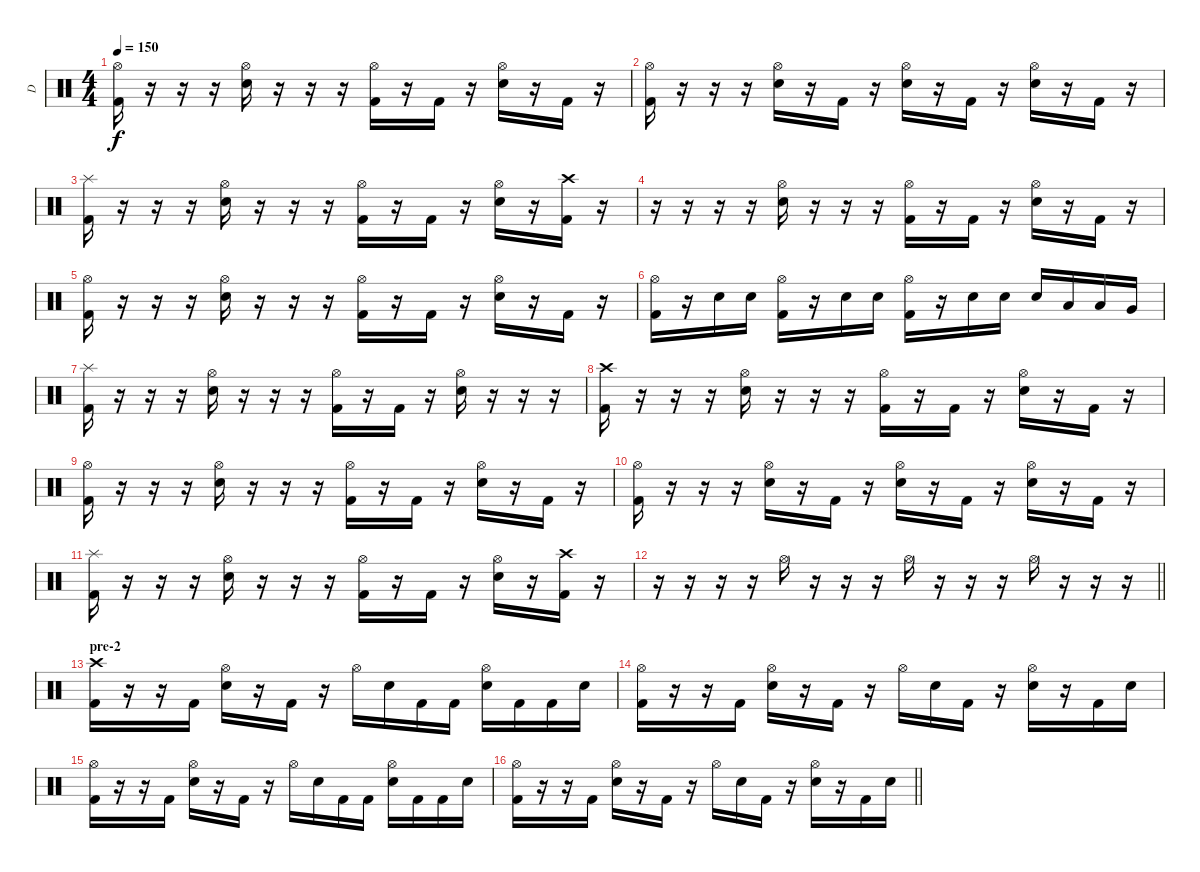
\track ("D" "D") {instrument percussion}
\staff {score}
\articulation defaults
\ts (4 4)
\tempo 150
\clef neutral
\ks c
("Hi-Hat (open)" "Kick (hit) 2").16{dy f} r.16 r.16 r.16 ("Hi-Hat (open)" "Electric Snare (hit)").16 r.16 r.16 r.16 ("Hi-Hat (open)" "Kick (hit) 2").16 r.16 "Kick (hit) 2".16 r.16 ("Hi-Hat (open)" "Electric Snare (hit)").16 r.16 "Kick (hit) 2".16 r.16 |
("Hi-Hat (open)" "Kick (hit) 2").16 r.16 r.16 r.16 ("Hi-Hat (open)" "Electric Snare (hit)").16 r.16 "Kick (hit) 2".16 r.16 ("Hi-Hat (open)" "Electric Snare (hit)").16 r.16 "Kick (hit) 2".16 r.16 ("Hi-Hat (open)" "Electric Snare (hit)").16 r.16 "Kick (hit) 2".16 r.16 |
("Splash (hit)" "Kick (hit) 2").16 r.16 r.16 r.16 ("Hi-Hat (open)" "Electric Snare (hit)").16 r.16 r.16 r.16 ("Hi-Hat (open)" "Kick (hit) 2").16 r.16 "Kick (hit) 2".16 r.16 ("Hi-Hat (open)" "Electric Snare (hit)").16 r.16 ("Crash high (hit)" "Kick (hit) 2").16 r.16 |
r.16 r.16 r.16 r.16 ("Hi-Hat (open)" "Electric Snare (hit)").16 r.16 r.16 r.16 ("Hi-Hat (open)" "Kick (hit) 2").16 r.16 "Kick (hit) 2".16 r.16 ("Hi-Hat (open)" "Electric Snare (hit)").16 r.16 "Kick (hit) 2".16 r.16 |
("Hi-Hat (open)" "Kick (hit) 2").16 r.16 r.16 r.16 ("Hi-Hat (open)" "Electric Snare (hit)").16 r.16 r.16 r.16 ("Hi-Hat (open)" "Kick (hit) 2").16 r.16 "Kick (hit) 2".16 r.16 ("Hi-Hat (open)" "Electric Snare (hit)").16 r.16 "Kick (hit) 2".16 r.16 |
("Hi-Hat (open)" "Kick (hit) 2").16 r.16 "Electric Snare (hit)".16 "Electric Snare (hit)".16 ("Hi-Hat (open)" "Kick (hit) 2").16 r.16 "Electric Snare (hit)".16 "Electric Snare (hit)".16 ("Hi-Hat (open)" "Kick (hit) 2").16 r.16 "Electric Snare (hit)".16 "Electric Snare (hit)".16 "Electric Snare (hit)".16 "Low Tom (hit)".16 "Low Tom (hit)".16 "Very Low Tom (hit)".16 |
("Splash (hit)" "Kick (hit) 2").16 r.16 r.16 r.16 ("Hi-Hat (open)" "Electric Snare (hit)").16 r.16 r.16 r.16 ("Hi-Hat (open)" "Kick (hit) 2").16 r.16 "Kick (hit) 2".16 r.16 ("Hi-Hat (open)" "Electric Snare (hit)").16 r.16 r.16 r.16 |
("Crash high (hit)" "Kick (hit) 2").16 r.16 r.16 r.16 ("Hi-Hat (open)" "Electric Snare (hit)").16 r.16 r.16 r.16 ("Hi-Hat (open)" "Kick (hit) 2").16 r.16 "Kick (hit) 2".16 r.16 ("Hi-Hat (open)" "Electric Snare (hit)").16 r.16 "Kick (hit) 2".16 r.16 |
("Hi-Hat (open)" "Kick (hit) 2").16 r.16 r.16 r.16 ("Hi-Hat (open)" "Electric Snare (hit)").16 r.16 r.16 r.16 ("Hi-Hat (open)" "Kick (hit) 2").16 r.16 "Kick (hit) 2".16 r.16 ("Hi-Hat (open)" "Electric Snare (hit)").16 r.16 "Kick (hit) 2".16 r.16 |
("Hi-Hat (open)" "Kick (hit) 2").16 r.16 r.16 r.16 ("Hi-Hat (open)" "Electric Snare (hit)").16 r.16 "Kick (hit) 2".16 r.16 ("Hi-Hat (open)" "Electric Snare (hit)").16 r.16 "Kick (hit) 2".16 r.16 ("Hi-Hat (open)" "Electric Snare (hit)").16 r.16 "Kick (hit) 2".16 r.16 |
("Splash (hit)" "Kick (hit) 2").16 r.16 r.16 r.16 ("Hi-Hat (open)" "Electric Snare (hit)").16 r.16 r.16 r.16 ("Hi-Hat (open)" "Kick (hit) 2").16 r.16 "Kick (hit) 2".16 r.16 ("Hi-Hat (open)" "Electric Snare (hit)").16 r.16 ("Crash high (hit)" "Kick (hit) 2").16 r.16 |
\barLineRight lightlight
r.16 r.16 r.16 r.16 "Hi-Hat (open)".16 r.16 r.16 r.16 "Hi-Hat (open)".16 r.16 r.16 r.16 "Hi-Hat (open)".16 r.16 r.16 r.16 |
\section ("" "pre-2")
("Crash high (hit)" "Kick (hit) 2").16 r.16 r.16 "Kick (hit) 2".16 ("Hi-Hat (open)" "Electric Snare (hit)").16 r.16 "Kick (hit) 2".16 r.16 "Hi-Hat (open)".16 "Electric Snare (hit)".16 "Kick (hit) 2".16 "Kick (hit) 2".16 ("Hi-Hat (open)" "Electric Snare (hit)").16 "Kick (hit) 2".16 "Kick (hit) 2".16 "Electric Snare (hit)".16 |
("Hi-Hat (open)" "Kick (hit) 2").16 r.16 r.16 "Kick (hit) 2".16 ("Hi-Hat (open)" "Electric Snare (hit)").16 r.16 "Kick (hit) 2".16 r.16 "Hi-Hat (open)".16 "Electric Snare (hit)".16 "Kick (hit) 2".16 r.16 ("Hi-Hat (open)" "Electric Snare (hit)").16 r.16 "Kick (hit) 2".16 "Electric Snare (hit)".16 |
("Hi-Hat (open)" "Kick (hit) 2").16 r.16 r.16 "Kick (hit) 2".16 ("Hi-Hat (open)" "Electric Snare (hit)").16 r.16 "Kick (hit) 2".16 r.16 "Hi-Hat (open)".16 "Electric Snare (hit)".16 "Kick (hit) 2".16 "Kick (hit) 2".16 ("Hi-Hat (open)" "Electric Snare (hit)").16 "Kick (hit) 2".16 "Kick (hit) 2".16 "Electric Snare (hit)".16 |
\barLineRight lightlight
("Hi-Hat (open)" "Kick (hit) 2").16 r.16 r.16 "Kick (hit) 2".16 ("Hi-Hat (open)" "Electric Snare (hit)").16 r.16 "Kick (hit) 2".16 r.16 "Hi-Hat (open)".16 "Electric Snare (hit)".16 "Kick (hit) 2".16 r.16 ("Hi-Hat (open)" "Electric Snare (hit)").16 r.16 "Kick (hit) 2".16 "Electric Snare (hit)".16
